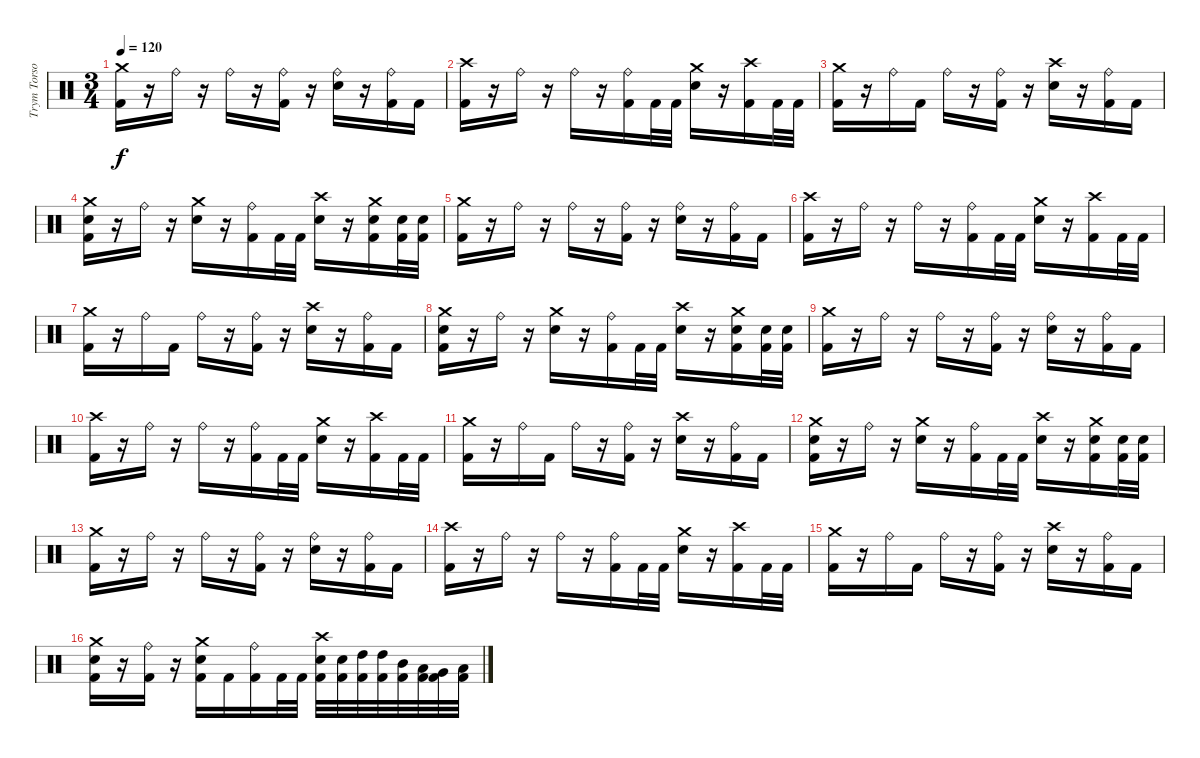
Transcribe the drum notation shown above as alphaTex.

\track ("Trym Torson" "Trym Torso") {instrument percussion}
\staff {score}
\articulation defaults
\ts (3 4)
\tempo 120
\clef neutral
\ks c
("Crash medium (hit)" "Kick (hit) 2").16{dy f} r.16 "Ride (bell)".16 r.16 "Ride (bell)".16 r.16 ("Ride (bell)" "Kick (hit) 2").16 r.16 ("Ride (bell)" "Snare (hit) 2").16 r.16 ("Ride (bell)" "Kick (hit) 2").16 "Kick (hit) 2".16 |
("Crash high (hit)" "Kick (hit) 2").16 r.16 "Ride (bell)".16 r.16 "Ride (bell)".16 r.16 ("Ride (bell)" "Kick (hit) 2").16 "Kick (hit) 2".32 "Kick (hit) 2".32 ("Crash medium (hit)" "Snare (hit) 2").16 r.16 ("Crash high (hit)" "Kick (hit) 2").16 "Kick (hit) 2".32 "Kick (hit) 2".32 |
("Crash medium (hit)" "Kick (hit) 2").16 r.16 "Ride (bell)".16 "Kick (hit) 2".16 "Ride (bell)".16 r.16 ("Ride (bell)" "Kick (hit) 2").16 r.16 ("Crash high (hit)" "Snare (hit) 2").16 r.16 ("Ride (bell)" "Kick (hit) 2").16 "Kick (hit) 2".16 |
("Crash medium (hit)" "Snare (hit) 2" "Kick (hit) 2").16 r.16 "Ride (bell)".16 r.16 ("Crash medium (hit)" "Snare (hit) 2").16 r.16 ("Ride (bell)" "Kick (hit) 2").16 "Kick (hit) 2".32 "Kick (hit) 2".32 ("Crash high (hit)" "Snare (hit) 2").16 r.16 ("Crash medium (hit)" "Snare (hit) 2" "Kick (hit) 2").16 ("Snare (hit) 2" "Kick (hit) 2").32 ("Snare (hit) 2" "Kick (hit) 2").32 |
("Crash medium (hit)" "Kick (hit) 2").16 r.16 "Ride (bell)".16 r.16 "Ride (bell)".16 r.16 ("Ride (bell)" "Kick (hit) 2").16 r.16 ("Ride (bell)" "Snare (hit) 2").16 r.16 ("Ride (bell)" "Kick (hit) 2").16 "Kick (hit) 2".16 |
("Crash high (hit)" "Kick (hit) 2").16 r.16 "Ride (bell)".16 r.16 "Ride (bell)".16 r.16 ("Ride (bell)" "Kick (hit) 2").16 "Kick (hit) 2".32 "Kick (hit) 2".32 ("Crash medium (hit)" "Snare (hit) 2").16 r.16 ("Crash high (hit)" "Kick (hit) 2").16 "Kick (hit) 2".32 "Kick (hit) 2".32 |
("Crash medium (hit)" "Kick (hit) 2").16 r.16 "Ride (bell)".16 "Kick (hit) 2".16 "Ride (bell)".16 r.16 ("Ride (bell)" "Kick (hit) 2").16 r.16 ("Crash high (hit)" "Snare (hit) 2").16 r.16 ("Ride (bell)" "Kick (hit) 2").16 "Kick (hit) 2".16 |
("Crash medium (hit)" "Snare (hit) 2" "Kick (hit) 2").16 r.16 "Ride (bell)".16 r.16 ("Crash medium (hit)" "Snare (hit) 2").16 r.16 ("Ride (bell)" "Kick (hit) 2").16 "Kick (hit) 2".32 "Kick (hit) 2".32 ("Crash high (hit)" "Snare (hit) 2").16 r.16 ("Crash medium (hit)" "Snare (hit) 2" "Kick (hit) 2").16 ("Snare (hit) 2" "Kick (hit) 2").32 ("Snare (hit) 2" "Kick (hit) 2").32 |
("Crash medium (hit)" "Kick (hit) 2").16 r.16 "Ride (bell)".16 r.16 "Ride (bell)".16 r.16 ("Ride (bell)" "Kick (hit) 2").16 r.16 ("Ride (bell)" "Snare (hit) 2").16 r.16 ("Ride (bell)" "Kick (hit) 2").16 "Kick (hit) 2".16 |
("Crash high (hit)" "Kick (hit) 2").16 r.16 "Ride (bell)".16 r.16 "Ride (bell)".16 r.16 ("Ride (bell)" "Kick (hit) 2").16 "Kick (hit) 2".32 "Kick (hit) 2".32 ("Crash medium (hit)" "Snare (hit) 2").16 r.16 ("Crash high (hit)" "Kick (hit) 2").16 "Kick (hit) 2".32 "Kick (hit) 2".32 |
("Crash medium (hit)" "Kick (hit) 2").16 r.16 "Ride (bell)".16 "Kick (hit) 2".16 "Ride (bell)".16 r.16 ("Ride (bell)" "Kick (hit) 2").16 r.16 ("Crash high (hit)" "Snare (hit) 2").16 r.16 ("Ride (bell)" "Kick (hit) 2").16 "Kick (hit) 2".16 |
("Crash medium (hit)" "Snare (hit) 2" "Kick (hit) 2").16 r.16 "Ride (bell)".16 r.16 ("Crash medium (hit)" "Snare (hit) 2").16 r.16 ("Ride (bell)" "Kick (hit) 2").16 "Kick (hit) 2".32 "Kick (hit) 2".32 ("Crash high (hit)" "Snare (hit) 2").16 r.16 ("Crash medium (hit)" "Snare (hit) 2" "Kick (hit) 2").16 ("Snare (hit) 2" "Kick (hit) 2").32 ("Snare (hit) 2" "Kick (hit) 2").32 |
("Crash medium (hit)" "Kick (hit) 2").16 r.16 "Ride (bell)".16 r.16 "Ride (bell)".16 r.16 ("Ride (bell)" "Kick (hit) 2").16 r.16 ("Ride (bell)" "Snare (hit) 2").16 r.16 ("Ride (bell)" "Kick (hit) 2").16 "Kick (hit) 2".16 |
("Crash high (hit)" "Kick (hit) 2").16 r.16 "Ride (bell)".16 r.16 "Ride (bell)".16 r.16 ("Ride (bell)" "Kick (hit) 2").16 "Kick (hit) 2".32 "Kick (hit) 2".32 ("Crash medium (hit)" "Snare (hit) 2").16 r.16 ("Crash high (hit)" "Kick (hit) 2").16 "Kick (hit) 2".32 "Kick (hit) 2".32 |
("Crash medium (hit)" "Kick (hit) 2").16 r.16 "Ride (bell)".16 "Kick (hit) 2".16 "Ride (bell)".16 r.16 ("Ride (bell)" "Kick (hit) 2").16 r.16 ("Crash high (hit)" "Snare (hit) 2").16 r.16 ("Ride (bell)" "Kick (hit) 2").16 "Kick (hit) 2".16 |
("Crash medium (hit)" "Snare (hit) 2" "Kick (hit) 2").16 r.16 ("Ride (bell)" "Kick (hit) 2").16 r.16 ("Crash medium (hit)" "Snare (hit) 2" "Kick (hit) 2").16 "Kick (hit) 2".16 ("Ride (bell)" "Kick (hit) 2").16 "Kick (hit) 2".32 "Kick (hit) 2".32 ("Crash high (hit)" "Snare (hit) 2" "Kick (hit) 2").32 ("Snare (hit) 2" "Kick (hit) 2").32 ("High Tom (hit)" "Kick (hit) 2").32 ("High Tom (hit)" "Kick (hit) 2").32 ("Mid Tom (hit)" "Kick (hit) 2").32 ("Low Tom (hit)" "Kick (hit) 2").32 ("Very Low Tom (hit)" "Kick (hit) 2").32 ("Low Floor Tom (hit)" "Kick (hit) 2").32
